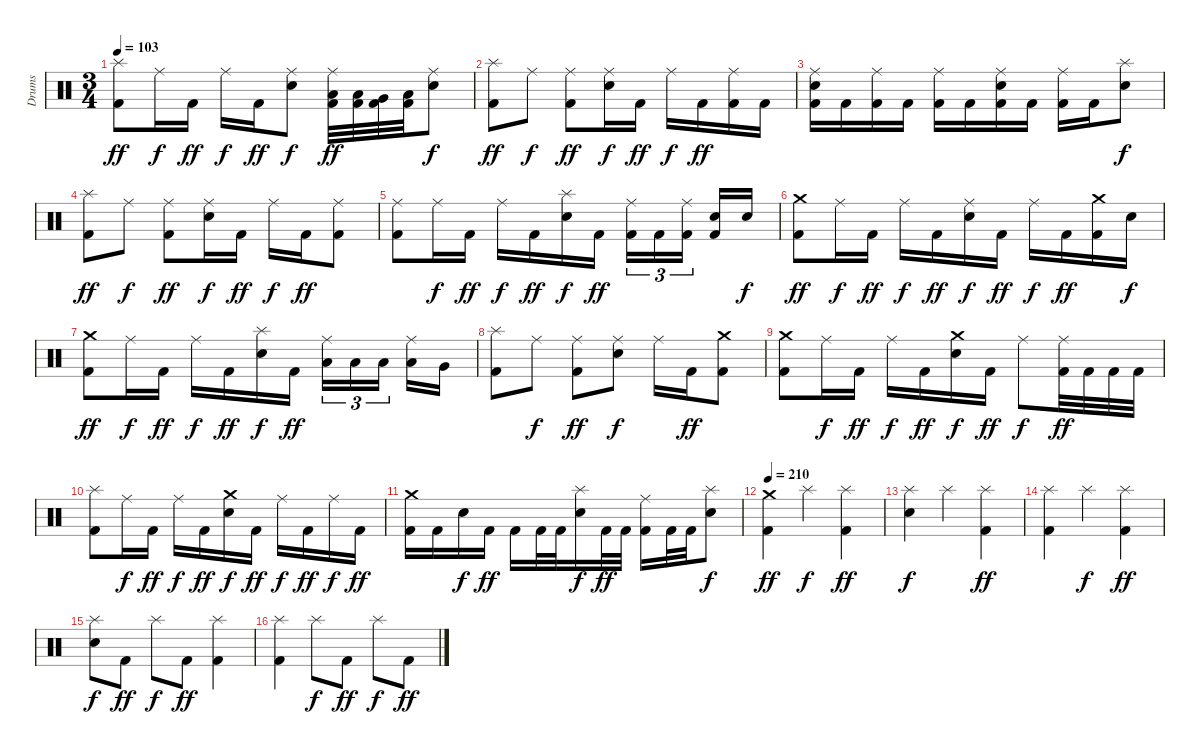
\track ("Drums" "Drums") {instrument percussion}
\staff {score}
\articulation defaults
\ts (3 4)
\tempo 103
\clef neutral
\ks c
("Splash (hit)" "Kick (hit) 2").8{dy ff} "Ride (middle)".16{dy f} "Kick (hit) 2".16{dy ff} "Ride (middle)".16{dy f} "Kick (hit) 2".16{dy ff} ("Ride (middle)" "Electric Snare (hit)").8{dy f} ("Ride (middle)" "Low Tom (hit)" "Kick (hit) 2").32{dy ff} ("Low Tom (hit)" "Kick (hit) 2").32 ("Very Low Tom (hit)" "Kick (hit) 2").32 ("Low Floor Tom (hit)" "Kick (hit) 2").32 ("Ride (middle)" "Electric Snare (hit)").8{dy f} |
("Splash (hit)" "Kick (hit) 2").8{dy ff} "Ride (middle)".8{dy f} ("Ride (middle)" "Kick (hit) 2").8{dy ff} ("Ride (middle)" "Electric Snare (hit)").16{dy f} "Kick (hit) 2".16{dy ff} "Ride (middle)".16{dy f} "Kick (hit) 2".16{dy ff} ("Ride (middle)" "Kick (hit) 2").16 "Kick (hit) 2".16 |
("Ride (middle)" "Electric Snare (hit)" "Kick (hit) 2").16 "Kick (hit) 2".16 ("Ride (middle)" "Kick (hit) 2").16 "Kick (hit) 2".16 ("Ride (middle)" "Kick (hit) 2").16 "Kick (hit) 2".16 ("Ride (middle)" "Electric Snare (hit)" "Kick (hit) 2").16 "Kick (hit) 2".16 ("Ride (middle)" "Kick (hit) 2").16 "Kick (hit) 2".16 ("Splash (hit)" "Electric Snare (hit)").8{dy f} |
("Splash (hit)" "Kick (hit) 2").8{dy ff} "Ride (middle)".8{dy f} ("Ride (middle)" "Kick (hit) 2").8{dy ff} ("Ride (middle)" "Electric Snare (hit)").16{dy f} "Kick (hit) 2".16{dy ff} "Ride (middle)".16{dy f} "Kick (hit) 2".16{dy ff} ("Ride (middle)" "Kick (hit) 2").8 |
("Ride (middle)" "Kick (hit) 2").8 "Ride (middle)".16{dy f} "Kick (hit) 2".16{dy ff} "Ride (middle)".16{dy f} "Kick (hit) 2".16{dy ff} ("Splash (hit)" "Electric Snare (hit)").16{dy f} "Kick (hit) 2".16{dy ff} ("Ride (middle)" "Kick (hit) 2").16{tu (3 2)} "Kick (hit) 2".16{tu (3 2)} ("Ride (middle)" "Kick (hit) 2").16{tu (3 2)} ("Electric Snare (hit)" "Kick (hit) 2").16 "Electric Snare (hit)".16{dy f} |
("Crash medium (hit)" "Kick (hit) 2").8{dy ff} "Ride (middle)".16{dy f} "Kick (hit) 2".16{dy ff} "Ride (middle)".16{dy f} "Kick (hit) 2".16{dy ff} ("Ride (middle)" "Electric Snare (hit)").16{dy f} "Kick (hit) 2".16{dy ff} "Ride (middle)".16{dy f} "Kick (hit) 2".16{dy ff} ("Crash medium (hit)" "Kick (hit) 2").16 "Electric Snare (hit)".16{dy f} |
("Crash medium (hit)" "Kick (hit) 2").8{dy ff} "Ride (middle)".16{dy f} "Kick (hit) 2".16{dy ff} "Ride (middle)".16{dy f} "Kick (hit) 2".16{dy ff} ("Splash (hit)" "Electric Snare (hit)").16{dy f} "Kick (hit) 2".16{dy ff} ("Ride (middle)" "Low Tom (hit)").16{tu (3 2)} "Low Tom (hit)".16{tu (3 2)} "Low Tom (hit)".16{tu (3 2)} ("Ride (middle)" "Low Tom (hit)").16 "Very Low Tom (hit)".16 |
("Splash (hit)" "Kick (hit) 2").8 "Ride (middle)".8{dy f} ("Ride (middle)" "Kick (hit) 2").8{dy ff} ("Ride (middle)" "Electric Snare (hit)").8{dy f} "Ride (middle)".16 "Kick (hit) 2".16{dy ff} ("Crash medium (hit)" "Kick (hit) 2").8 |
("Crash medium (hit)" "Kick (hit) 2").8 "Ride (middle)".16{dy f} "Kick (hit) 2".16{dy ff} "Ride (middle)".16{dy f} "Kick (hit) 2".16{dy ff} ("Crash medium (hit)" "Electric Snare (hit)").16{dy f} "Kick (hit) 2".16{dy ff} "Ride (middle)".8{dy f} ("Ride (middle)" "Kick (hit) 2").32{dy ff} "Kick (hit) 2".32 "Kick (hit) 2".32 "Kick (hit) 2".32 |
("Splash (hit)" "Kick (hit) 2").8 "Ride (middle)".16{dy f} "Kick (hit) 2".16{dy ff} "Ride (middle)".16{dy f} "Kick (hit) 2".16{dy ff} ("Crash medium (hit)" "Electric Snare (hit)").16{dy f} "Kick (hit) 2".16{dy ff} "Ride (middle)".16{dy f} "Kick (hit) 2".16{dy ff} "Ride (middle)".16{dy f} "Kick (hit) 2".16{dy ff} |
("Crash medium (hit)" "Kick (hit) 2").16 "Kick (hit) 2".16 "Electric Snare (hit)".16{dy f} "Kick (hit) 2".16{dy ff} "Kick (hit) 2".16 "Kick (hit) 2".32 "Kick (hit) 2".32 ("Splash (hit)" "Electric Snare (hit)").16{dy f} "Kick (hit) 2".32{dy ff} "Kick (hit) 2".32 ("Ride (middle)" "Kick (hit) 2").16 "Kick (hit) 2".32 "Kick (hit) 2".32 ("Splash (hit)" "Electric Snare (hit)").8{dy f} |
\tempo 210
("Crash medium (hit)" "Kick (hit) 2").4{dy ff} "Splash (hit)".4{dy f} ("Splash (hit)" "Kick (hit) 2").4{dy ff} |
("Splash (hit)" "Electric Snare (hit)").4{dy f} "Splash (hit)".4 ("Splash (hit)" "Kick (hit) 2").4{dy ff} |
("Splash (hit)" "Kick (hit) 2").4 "Splash (hit)".4{dy f} ("Splash (hit)" "Kick (hit) 2").4{dy ff} |
("Splash (hit)" "Electric Snare (hit)").8{dy f} "Kick (hit) 2".8{dy ff} "Splash (hit)".8{dy f} "Kick (hit) 2".8{dy ff} ("Splash (hit)" "Kick (hit) 2").4 |
("Splash (hit)" "Kick (hit) 2").4 "Splash (hit)".8{dy f} "Kick (hit) 2".8{dy ff} "Splash (hit)".8{dy f} "Kick (hit) 2".8{dy ff}
